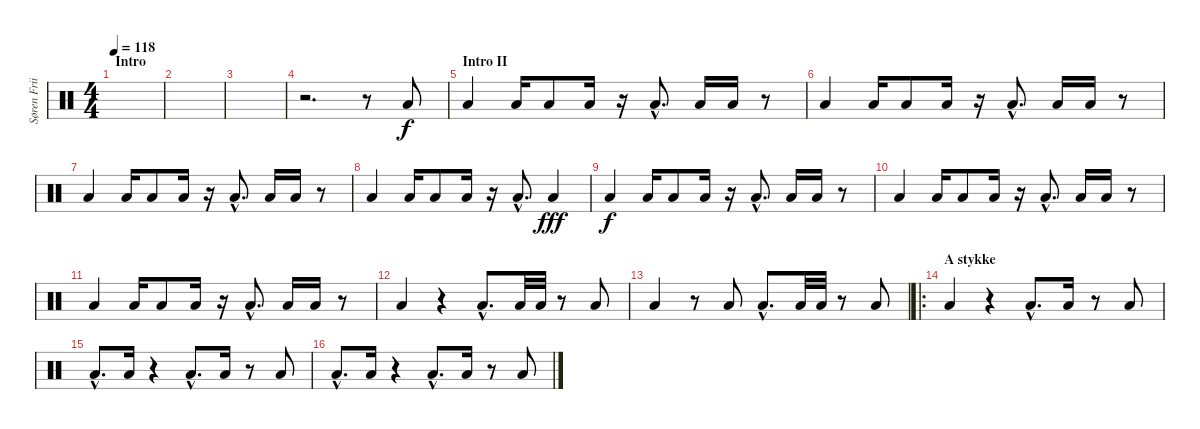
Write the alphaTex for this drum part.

\track ("Søren Friis (Drums)" "Søren Frii") {instrument percussion}
\staff {score}
\articulation defaults
\ts (4 4)
\section ("" "Intro")
\tempo 118
\clef neutral
\ks c
|
|
|
r.2{d} r.8 "Low Floor Tom (hit)".8 |
\section ("" "Intro II")
"Low Floor Tom (hit)".4{dy f} "Low Floor Tom (hit)".16 "Low Floor Tom (hit)".8 "Low Floor Tom (hit)".16 r.16 "Low Floor Tom (hit)"{hac}.8{d} "Low Floor Tom (hit)".16 "Low Floor Tom (hit)".16 r.8 |
"Low Floor Tom (hit)".4 "Low Floor Tom (hit)".16 "Low Floor Tom (hit)".8 "Low Floor Tom (hit)".16 r.16 "Low Floor Tom (hit)"{hac}.8{d} "Low Floor Tom (hit)".16 "Low Floor Tom (hit)".16 r.8 |
"Low Floor Tom (hit)".4 "Low Floor Tom (hit)".16 "Low Floor Tom (hit)".8 "Low Floor Tom (hit)".16 r.16 "Low Floor Tom (hit)"{hac}.8{d} "Low Floor Tom (hit)".16 "Low Floor Tom (hit)".16 r.8 |
"Low Floor Tom (hit)".4 "Low Floor Tom (hit)".16 "Low Floor Tom (hit)".8 "Low Floor Tom (hit)".16 r.16 "Low Floor Tom (hit)"{hac}.8{d} "Low Floor Tom (hit)".4{dy fff} |
"Low Floor Tom (hit)".4{dy f} "Low Floor Tom (hit)".16 "Low Floor Tom (hit)".8 "Low Floor Tom (hit)".16 r.16 "Low Floor Tom (hit)"{hac}.8{d} "Low Floor Tom (hit)".16 "Low Floor Tom (hit)".16 r.8 |
"Low Floor Tom (hit)".4 "Low Floor Tom (hit)".16 "Low Floor Tom (hit)".8 "Low Floor Tom (hit)".16 r.16 "Low Floor Tom (hit)"{hac}.8{d} "Low Floor Tom (hit)".16 "Low Floor Tom (hit)".16 r.8 |
"Low Floor Tom (hit)".4 "Low Floor Tom (hit)".16 "Low Floor Tom (hit)".8 "Low Floor Tom (hit)".16 r.16 "Low Floor Tom (hit)"{hac}.8{d} "Low Floor Tom (hit)".16 "Low Floor Tom (hit)".16 r.8 |
"Low Floor Tom (hit)".4 r.4 "Low Floor Tom (hit)"{hac}.8{d} "Low Floor Tom (hit)".32 "Low Floor Tom (hit)".32 r.8 "Low Floor Tom (hit)".8 |
"Low Floor Tom (hit)".4 r.8 "Low Floor Tom (hit)".8 "Low Floor Tom (hit)"{hac}.8{d} "Low Floor Tom (hit)".32 "Low Floor Tom (hit)".32 r.8 "Low Floor Tom (hit)".8 |
\ro
\section ("" "A stykke")
"Low Floor Tom (hit)".4 r.4 "Low Floor Tom (hit)"{hac}.8{d} "Low Floor Tom (hit)".16 r.8 "Low Floor Tom (hit)".8 |
"Low Floor Tom (hit)"{hac}.8{d} "Low Floor Tom (hit)".16 r.4 "Low Floor Tom (hit)"{hac}.8{d} "Low Floor Tom (hit)".16 r.8 "Low Floor Tom (hit)".8 |
"Low Floor Tom (hit)"{hac}.8{d} "Low Floor Tom (hit)".16 r.4 "Low Floor Tom (hit)"{hac}.8{d} "Low Floor Tom (hit)".16 r.8 "Low Floor Tom (hit)".8
